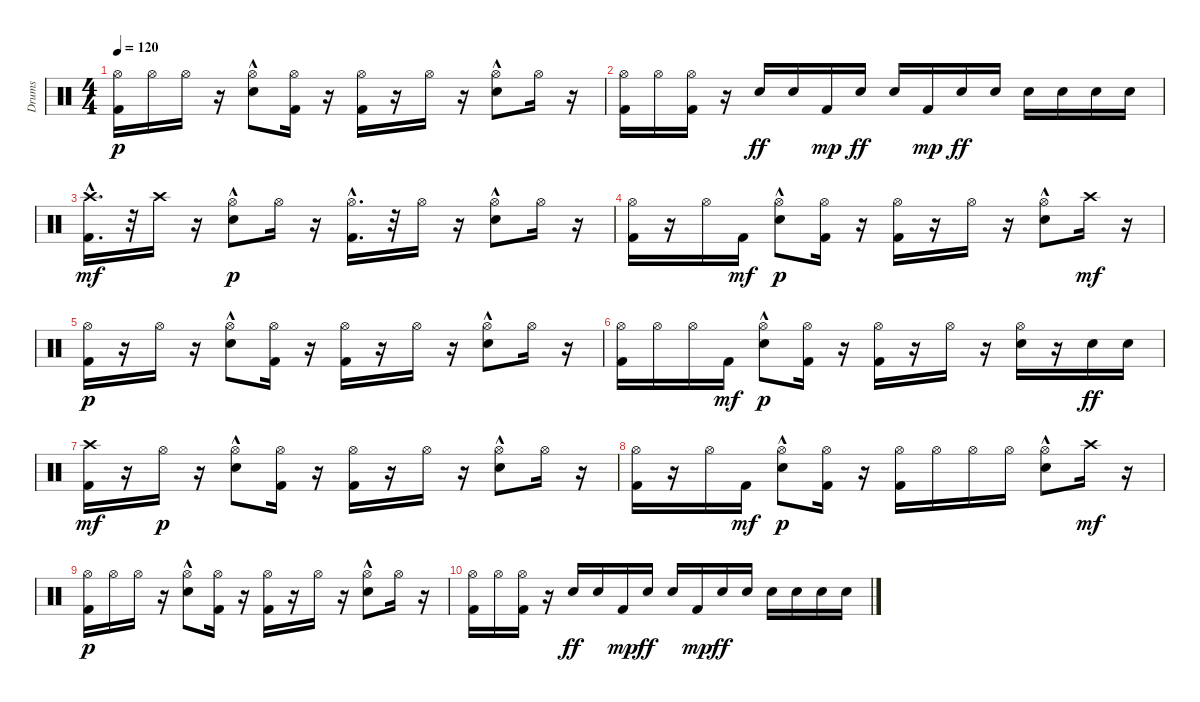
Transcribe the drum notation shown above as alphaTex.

\track ("Drums" "Drums") {instrument percussion}
\staff {score}
\articulation defaults
\ts (4 4)
\tempo 120
\clef neutral
\ks c
("Kick (hit) 2" "Hi-Hat (open)").16{dy p} "Hi-Hat (open)".16 "Hi-Hat (open)".16 r.16 ("Electric Snare (hit)"{hac} "Hi-Hat (open)").8 ("Kick (hit) 2" "Hi-Hat (open)").16 r.16 ("Kick (hit) 2" "Hi-Hat (open)").16 r.16 "Hi-Hat (open)".16 r.16 ("Electric Snare (hit)"{hac} "Hi-Hat (open)").8 "Hi-Hat (open)".16 r.16 |
("Kick (hit) 2" "Hi-Hat (open)").16 "Hi-Hat (open)".16 ("Kick (hit) 2" "Hi-Hat (open)").16 r.16 "Electric Snare (hit)".16{dy ff} "Electric Snare (hit)".16 "Kick (hit) 2".16{dy mp} "Electric Snare (hit)".16{dy ff} "Electric Snare (hit)".16 "Kick (hit) 2".16{dy mp} "Electric Snare (hit)".16{dy ff} "Electric Snare (hit)".16 "Electric Snare (hit)".16 "Electric Snare (hit)".16 "Electric Snare (hit)".16 "Electric Snare (hit)".16 |
("Kick (hit) 2"{hac} "Crash high (hit)").16{d dy mf} r.32 "Crash high (hit)".16 r.16 ("Electric Snare (hit)"{hac} "Hi-Hat (open)").8{dy p} "Hi-Hat (open)".16 r.16 ("Kick (hit) 2"{hac} "Hi-Hat (open)").16{d} r.32 "Hi-Hat (open)".16 r.16 ("Electric Snare (hit)"{hac} "Hi-Hat (open)").8 "Hi-Hat (open)".16 r.16 |
("Kick (hit) 2" "Hi-Hat (open)").16 r.16 "Hi-Hat (open)".16 "Kick (hit) 2".16{dy mf} ("Electric Snare (hit)"{hac} "Hi-Hat (open)").8{dy p} ("Kick (hit) 2" "Hi-Hat (open)").16 r.16 ("Kick (hit) 2" "Hi-Hat (open)").16 r.16 "Hi-Hat (open)".16 r.16 ("Electric Snare (hit)"{hac} "Hi-Hat (open)").8 "Crash high (hit)".16{dy mf} r.16 |
("Kick (hit) 2" "Hi-Hat (open)").16{dy p} r.16 "Hi-Hat (open)".16 r.16 ("Electric Snare (hit)"{hac} "Hi-Hat (open)").8 ("Kick (hit) 2" "Hi-Hat (open)").16 r.16 ("Kick (hit) 2" "Hi-Hat (open)").16 r.16 "Hi-Hat (open)".16 r.16 ("Electric Snare (hit)"{hac} "Hi-Hat (open)").8 "Hi-Hat (open)".16 r.16 |
("Kick (hit) 2" "Hi-Hat (open)").16 "Hi-Hat (open)".16 "Hi-Hat (open)".16 "Kick (hit) 2".16{dy mf} ("Electric Snare (hit)"{hac} "Hi-Hat (open)").8{dy p} ("Kick (hit) 2" "Hi-Hat (open)").16 r.16 ("Kick (hit) 2" "Hi-Hat (open)").16 r.16 "Hi-Hat (open)".16 r.16 ("Electric Snare (hit)" "Hi-Hat (open)").16 r.16 "Electric Snare (hit)".16{dy ff} "Electric Snare (hit)".16 |
("Kick (hit) 2" "Crash high (hit)").16{dy mf} r.16 "Hi-Hat (open)".16{dy p} r.16 ("Electric Snare (hit)"{hac} "Hi-Hat (open)").8 ("Kick (hit) 2" "Hi-Hat (open)").16 r.16 ("Kick (hit) 2" "Hi-Hat (open)").16 r.16 "Hi-Hat (open)".16 r.16 ("Electric Snare (hit)"{hac} "Hi-Hat (open)").8 "Hi-Hat (open)".16 r.16 |
("Kick (hit) 2" "Hi-Hat (open)").16 r.16 "Hi-Hat (open)".16 "Kick (hit) 2".16{dy mf} ("Electric Snare (hit)"{hac} "Hi-Hat (open)").8{dy p} ("Kick (hit) 2" "Hi-Hat (open)").16 r.16 ("Kick (hit) 2" "Hi-Hat (open)").16 "Hi-Hat (open)".16 "Hi-Hat (open)".16 "Hi-Hat (open)".16 ("Electric Snare (hit)"{hac} "Hi-Hat (open)").8 "Crash high (hit)".16{dy mf} r.16 |
("Kick (hit) 2" "Hi-Hat (open)").16{dy p} "Hi-Hat (open)".16 "Hi-Hat (open)".16 r.16 ("Electric Snare (hit)"{hac} "Hi-Hat (open)").8 ("Kick (hit) 2" "Hi-Hat (open)").16 r.16 ("Kick (hit) 2" "Hi-Hat (open)").16 r.16 "Hi-Hat (open)".16 r.16 ("Electric Snare (hit)"{hac} "Hi-Hat (open)").8 "Hi-Hat (open)".16 r.16 |
("Kick (hit) 2" "Hi-Hat (open)").16 "Hi-Hat (open)".16 ("Kick (hit) 2" "Hi-Hat (open)").16 r.16 "Electric Snare (hit)".16{dy ff} "Electric Snare (hit)".16 "Kick (hit) 2".16{dy mp} "Electric Snare (hit)".16{dy ff} "Electric Snare (hit)".16 "Kick (hit) 2".16{dy mp} "Electric Snare (hit)".16{dy ff} "Electric Snare (hit)".16 "Electric Snare (hit)".16 "Electric Snare (hit)".16 "Electric Snare (hit)".16 "Electric Snare (hit)".16
